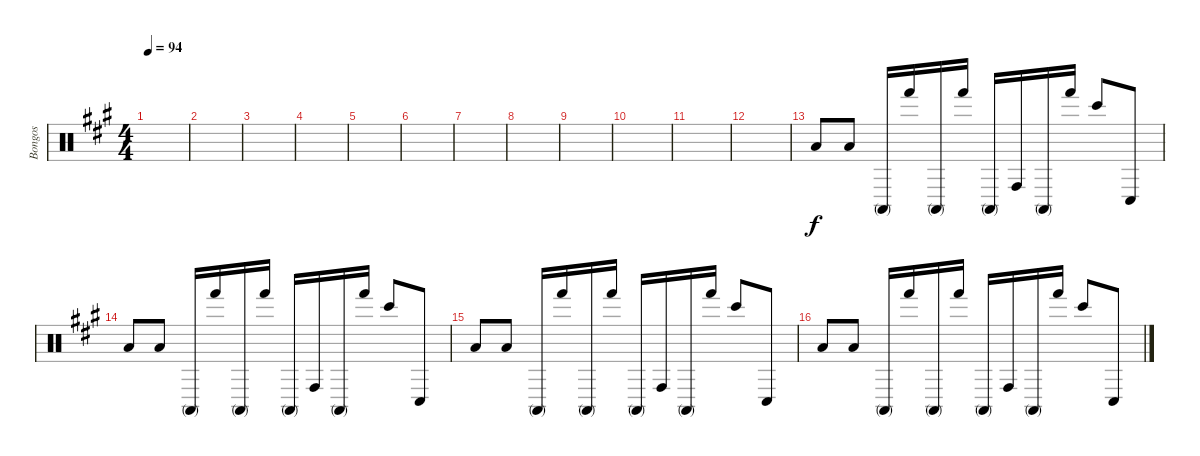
\track ("Bongos" "Bongos") {instrument percussion}
\staff {score}
\articulation defaults
\ts (4 4)
\tempo 94
\clef neutral
\ks a
|
|
|
|
|
|
|
|
|
|
|
|
"Low Floor Tom (hit)".8{volume 3} "Low Floor Tom (hit)".8 "Conga high (mute)".16 "Hand (hit)".16 "Conga high (mute)".16 "Hand (hit)".16 "Conga high (mute)".16 "Conga high (hit)".16 "Conga high (mute)".16 "Hand (hit)".16 "Bongo High (hit)".8 "Conga low (hit)".8 |
"Low Floor Tom (hit)".8{volume 4} "Low Floor Tom (hit)".8 "Conga high (mute)".16 "Hand (hit)".16 "Conga high (mute)".16 "Hand (hit)".16 "Conga high (mute)".16 "Conga high (hit)".16 "Conga high (mute)".16 "Hand (hit)".16 "Bongo High (hit)".8 "Conga low (hit)".8 |
"Low Floor Tom (hit)".8{volume 6} "Low Floor Tom (hit)".8 "Conga high (mute)".16 "Hand (hit)".16 "Conga high (mute)".16 "Hand (hit)".16 "Conga high (mute)".16 "Conga high (hit)".16 "Conga high (mute)".16 "Hand (hit)".16 "Bongo High (hit)".8 "Conga low (hit)".8 |
"Low Floor Tom (hit)".8{volume 8} "Low Floor Tom (hit)".8 "Conga high (mute)".16 "Hand (hit)".16 "Conga high (mute)".16 "Hand (hit)".16 "Conga high (mute)".16 "Conga high (hit)".16 "Conga high (mute)".16 "Hand (hit)".16 "Bongo High (hit)".8 "Conga low (hit)".8
